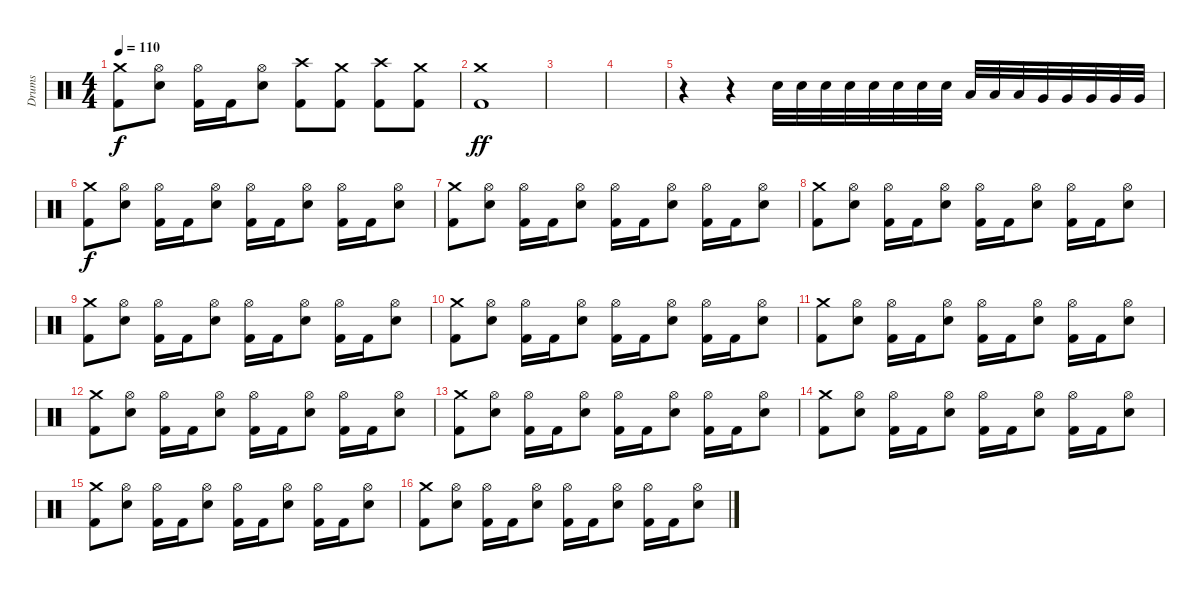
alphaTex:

\track ("Drums" "Drums") {instrument percussion}
\staff {score}
\articulation defaults
\ts (4 4)
\tempo 110
\clef neutral
\ks c
("Crash medium (hit)" "Kick (hit) 2").8{dy f} ("Hi-Hat (open)" "Snare (hit) 2").8 ("Hi-Hat (open)" "Kick (hit) 2").16 "Kick (hit) 2".16 ("Hi-Hat (open)" "Snare (hit) 2").8 ("Crash high (hit)" "Kick (hit) 2").8 ("Crash medium (hit)" "Kick (hit) 2").8 ("Crash high (hit)" "Kick (hit) 2").8 ("Crash medium (hit)" "Kick (hit) 2").8 |
("Crash medium (hit)" "Kick (hit) 2").1{dy ff} |
|
|
r.4 r.4 "Snare (hit) 2".32 "Snare (hit) 2".32 "Snare (hit) 2".32 "Snare (hit) 2".32 "Snare (hit) 2".32 "Snare (hit) 2".32 "Snare (hit) 2".32 "Snare (hit) 2".32 "Low Tom (hit)".32 "Low Tom (hit)".32 "Low Tom (hit)".32 "Very Low Tom (hit)".32 "Very Low Tom (hit)".32 "Very Low Tom (hit)".32 "Very Low Tom (hit)".32 "Very Low Tom (hit)".32 |
("Crash medium (hit)" "Kick (hit) 2").8{dy f} ("Hi-Hat (open)" "Snare (hit) 2").8 ("Hi-Hat (open)" "Kick (hit) 2").16 "Kick (hit) 2".16 ("Hi-Hat (open)" "Snare (hit) 2").8 ("Hi-Hat (open)" "Kick (hit) 2").16 "Kick (hit) 2".16 ("Hi-Hat (open)" "Snare (hit) 2").8 ("Hi-Hat (open)" "Kick (hit) 2").16 "Kick (hit) 2".16 ("Hi-Hat (open)" "Snare (hit) 2").8 |
("Crash medium (hit)" "Kick (hit) 2").8 ("Hi-Hat (open)" "Snare (hit) 2").8 ("Hi-Hat (open)" "Kick (hit) 2").16 "Kick (hit) 2".16 ("Hi-Hat (open)" "Snare (hit) 2").8 ("Hi-Hat (open)" "Kick (hit) 2").16 "Kick (hit) 2".16 ("Hi-Hat (open)" "Snare (hit) 2").8 ("Hi-Hat (open)" "Kick (hit) 2").16 "Kick (hit) 2".16 ("Hi-Hat (open)" "Snare (hit) 2").8 |
("Crash medium (hit)" "Kick (hit) 2").8 ("Hi-Hat (open)" "Snare (hit) 2").8 ("Hi-Hat (open)" "Kick (hit) 2").16 "Kick (hit) 2".16 ("Hi-Hat (open)" "Snare (hit) 2").8 ("Hi-Hat (open)" "Kick (hit) 2").16 "Kick (hit) 2".16 ("Hi-Hat (open)" "Snare (hit) 2").8 ("Hi-Hat (open)" "Kick (hit) 2").16 "Kick (hit) 2".16 ("Hi-Hat (open)" "Snare (hit) 2").8 |
("Crash medium (hit)" "Kick (hit) 2").8 ("Hi-Hat (open)" "Snare (hit) 2").8 ("Hi-Hat (open)" "Kick (hit) 2").16 "Kick (hit) 2".16 ("Hi-Hat (open)" "Snare (hit) 2").8 ("Hi-Hat (open)" "Kick (hit) 2").16 "Kick (hit) 2".16 ("Hi-Hat (open)" "Snare (hit) 2").8 ("Hi-Hat (open)" "Kick (hit) 2").16 "Kick (hit) 2".16 ("Hi-Hat (open)" "Snare (hit) 2").8 |
("Crash medium (hit)" "Kick (hit) 2").8 ("Hi-Hat (open)" "Snare (hit) 2").8 ("Hi-Hat (open)" "Kick (hit) 2").16 "Kick (hit) 2".16 ("Hi-Hat (open)" "Snare (hit) 2").8 ("Hi-Hat (open)" "Kick (hit) 2").16 "Kick (hit) 2".16 ("Hi-Hat (open)" "Snare (hit) 2").8 ("Hi-Hat (open)" "Kick (hit) 2").16 "Kick (hit) 2".16 ("Hi-Hat (open)" "Snare (hit) 2").8 |
("Crash medium (hit)" "Kick (hit) 2").8 ("Hi-Hat (open)" "Snare (hit) 2").8 ("Hi-Hat (open)" "Kick (hit) 2").16 "Kick (hit) 2".16 ("Hi-Hat (open)" "Snare (hit) 2").8 ("Hi-Hat (open)" "Kick (hit) 2").16 "Kick (hit) 2".16 ("Hi-Hat (open)" "Snare (hit) 2").8 ("Hi-Hat (open)" "Kick (hit) 2").16 "Kick (hit) 2".16 ("Hi-Hat (open)" "Snare (hit) 2").8 |
("Crash medium (hit)" "Kick (hit) 2").8 ("Hi-Hat (open)" "Snare (hit) 2").8 ("Hi-Hat (open)" "Kick (hit) 2").16 "Kick (hit) 2".16 ("Hi-Hat (open)" "Snare (hit) 2").8 ("Hi-Hat (open)" "Kick (hit) 2").16 "Kick (hit) 2".16 ("Hi-Hat (open)" "Snare (hit) 2").8 ("Hi-Hat (open)" "Kick (hit) 2").16 "Kick (hit) 2".16 ("Hi-Hat (open)" "Snare (hit) 2").8 |
("Crash medium (hit)" "Kick (hit) 2").8 ("Hi-Hat (open)" "Snare (hit) 2").8 ("Hi-Hat (open)" "Kick (hit) 2").16 "Kick (hit) 2".16 ("Hi-Hat (open)" "Snare (hit) 2").8 ("Hi-Hat (open)" "Kick (hit) 2").16 "Kick (hit) 2".16 ("Hi-Hat (open)" "Snare (hit) 2").8 ("Hi-Hat (open)" "Kick (hit) 2").16 "Kick (hit) 2".16 ("Hi-Hat (open)" "Snare (hit) 2").8 |
("Crash medium (hit)" "Kick (hit) 2").8 ("Hi-Hat (open)" "Snare (hit) 2").8 ("Hi-Hat (open)" "Kick (hit) 2").16 "Kick (hit) 2".16 ("Hi-Hat (open)" "Snare (hit) 2").8 ("Hi-Hat (open)" "Kick (hit) 2").16 "Kick (hit) 2".16 ("Hi-Hat (open)" "Snare (hit) 2").8 ("Hi-Hat (open)" "Kick (hit) 2").16 "Kick (hit) 2".16 ("Hi-Hat (open)" "Snare (hit) 2").8 |
("Crash medium (hit)" "Kick (hit) 2").8 ("Hi-Hat (open)" "Snare (hit) 2").8 ("Hi-Hat (open)" "Kick (hit) 2").16 "Kick (hit) 2".16 ("Hi-Hat (open)" "Snare (hit) 2").8 ("Hi-Hat (open)" "Kick (hit) 2").16 "Kick (hit) 2".16 ("Hi-Hat (open)" "Snare (hit) 2").8 ("Hi-Hat (open)" "Kick (hit) 2").16 "Kick (hit) 2".16 ("Hi-Hat (open)" "Snare (hit) 2").8 |
("Crash medium (hit)" "Kick (hit) 2").8 ("Hi-Hat (open)" "Snare (hit) 2").8 ("Hi-Hat (open)" "Kick (hit) 2").16 "Kick (hit) 2".16 ("Hi-Hat (open)" "Snare (hit) 2").8 ("Hi-Hat (open)" "Kick (hit) 2").16 "Kick (hit) 2".16 ("Hi-Hat (open)" "Snare (hit) 2").8 ("Hi-Hat (open)" "Kick (hit) 2").16 "Kick (hit) 2".16 ("Hi-Hat (open)" "Snare (hit) 2").8
